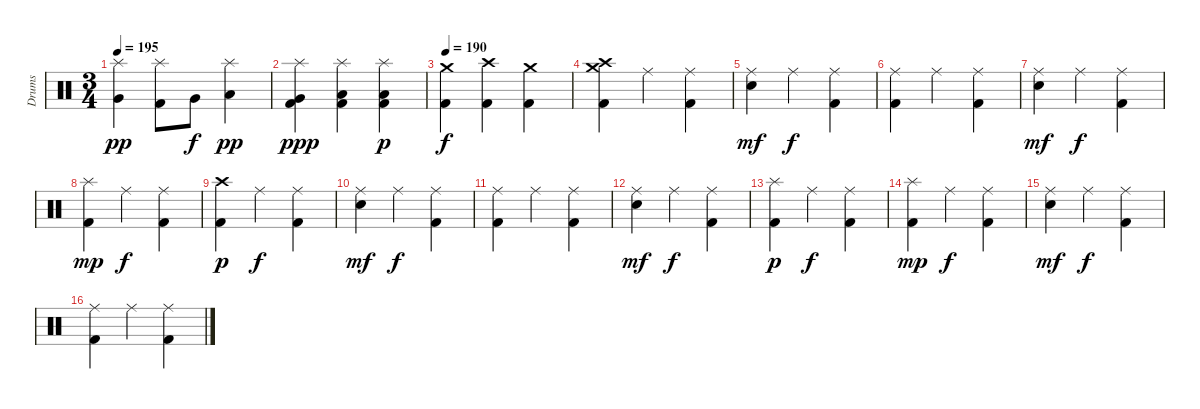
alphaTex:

\track ("Drums" "Drums") {instrument percussion}
\staff {score}
\articulation defaults
\ts (3 4)
\tempo 195
\clef neutral
\ks c
("Splash (hit)" "Very Low Tom (hit)").4{dy pp} ("Splash (hit)" "Kick (hit) 2").8 "Very Low Tom (hit)".8{dy f} ("Splash (hit)" "Low Floor Tom (hit)").4{dy pp} |
("Splash (hit)" "Very Low Tom (hit)" "Kick (hit) 2").4{dy ppp} ("Splash (hit)" "Low Floor Tom (hit)" "Kick (hit) 2").4 ("Splash (hit)" "Low Floor Tom (hit)" "Kick (hit) 2").4{dy p} |
\tempo 190
("Crash medium (hit)" "Kick (hit) 2").4{dy f} ("Crash high (hit)" "Kick (hit) 2").4 ("Crash medium (hit)" "Kick (hit) 2").4 |
("Crash medium (hit)" "Crash high (hit)" "Kick (hit) 2").4 "Ride (middle)".4 ("Ride (middle)" "Kick (hit) 2").4 |
("Ride (middle)" "Electric Snare (hit)").4{dy mf} "Ride (middle)".4{dy f} ("Ride (middle)" "Kick (hit) 2").4 |
("Ride (middle)" "Kick (hit) 2").4 "Ride (middle)".4 ("Ride (middle)" "Kick (hit) 2").4 |
("Ride (middle)" "Electric Snare (hit)").4{dy mf} "Ride (middle)".4{dy f} ("Ride (middle)" "Kick (hit) 2").4 |
("Splash (hit)" "Kick (hit) 2").4{dy mp} "Ride (middle)".4{dy f} ("Ride (middle)" "Kick (hit) 2").4 |
("Crash high (hit)" "Kick (hit) 2").4{dy p} "Ride (middle)".4{dy f} ("Ride (middle)" "Kick (hit) 2").4 |
("Ride (middle)" "Electric Snare (hit)").4{dy mf} "Ride (middle)".4{dy f} ("Ride (middle)" "Kick (hit) 2").4 |
("Ride (middle)" "Kick (hit) 2").4 "Ride (middle)".4 ("Ride (middle)" "Kick (hit) 2").4 |
("Ride (middle)" "Electric Snare (hit)").4{dy mf} "Ride (middle)".4{dy f} ("Ride (middle)" "Kick (hit) 2").4 |
("Splash (hit)" "Kick (hit) 2").4{dy p} "Ride (middle)".4{dy f} ("Ride (middle)" "Kick (hit) 2").4 |
("Splash (hit)" "Kick (hit) 2").4{dy mp} "Ride (middle)".4{dy f} ("Ride (middle)" "Kick (hit) 2").4 |
("Ride (middle)" "Electric Snare (hit)").4{dy mf} "Ride (middle)".4{dy f} ("Ride (middle)" "Kick (hit) 2").4 |
("Ride (middle)" "Kick (hit) 2").4 "Ride (middle)".4 ("Ride (middle)" "Kick (hit) 2").4
